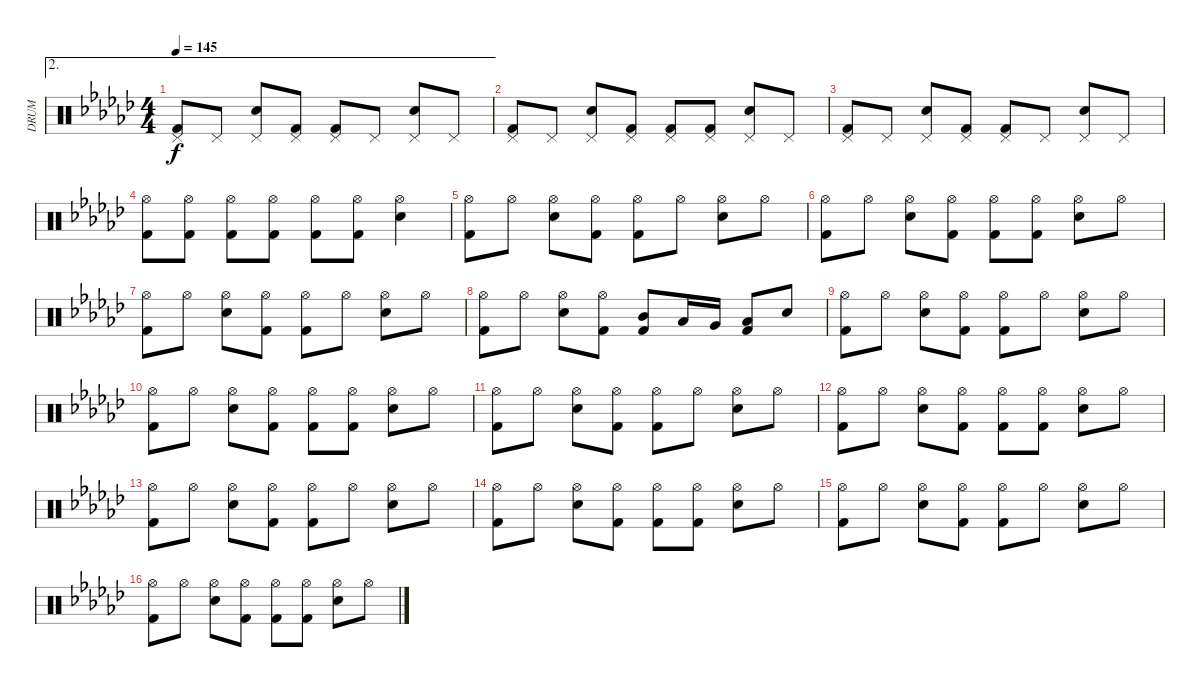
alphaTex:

\track ("DRUM" "DRUM") {instrument percussion}
\staff {score}
\articulation defaults
\ae 2
\ts (4 4)
\tempo 145
\clef neutral
\ks ebminor
("Pedal Hi-Hat (hit)" "Kick (hit) 2").8{dy f} "Pedal Hi-Hat (hit)".8 ("Pedal Hi-Hat (hit)" "Electric Snare (hit)").8 ("Pedal Hi-Hat (hit)" "Kick (hit) 2").8 ("Pedal Hi-Hat (hit)" "Kick (hit) 2").8 "Pedal Hi-Hat (hit)".8 ("Pedal Hi-Hat (hit)" "Electric Snare (hit)").8 "Pedal Hi-Hat (hit)".8 |
("Pedal Hi-Hat (hit)" "Kick (hit) 2").8 "Pedal Hi-Hat (hit)".8 ("Pedal Hi-Hat (hit)" "Electric Snare (hit)").8 ("Pedal Hi-Hat (hit)" "Kick (hit) 2").8 ("Pedal Hi-Hat (hit)" "Kick (hit) 2").8 ("Pedal Hi-Hat (hit)" "Kick (hit) 2").8 ("Pedal Hi-Hat (hit)" "Electric Snare (hit)").8 "Pedal Hi-Hat (hit)".8 |
("Pedal Hi-Hat (hit)" "Kick (hit) 2").8 "Pedal Hi-Hat (hit)".8 ("Pedal Hi-Hat (hit)" "Electric Snare (hit)").8 ("Pedal Hi-Hat (hit)" "Kick (hit) 2").8 ("Pedal Hi-Hat (hit)" "Kick (hit) 2").8 "Pedal Hi-Hat (hit)".8 ("Pedal Hi-Hat (hit)" "Electric Snare (hit)").8 "Pedal Hi-Hat (hit)".8 |
("Hi-Hat (open)" "Kick (hit) 2").8 ("Hi-Hat (open)" "Kick (hit) 2").8 ("Hi-Hat (open)" "Kick (hit) 2").8 ("Hi-Hat (open)" "Kick (hit) 2").8 ("Hi-Hat (open)" "Kick (hit) 2").8 ("Hi-Hat (open)" "Kick (hit) 2").8 ("Hi-Hat (open)" "Electric Snare (hit)").4 |
("Hi-Hat (open)" "Kick (hit) 2").8 "Hi-Hat (open)".8 ("Hi-Hat (open)" "Electric Snare (hit)").8 ("Hi-Hat (open)" "Kick (hit) 2").8 ("Hi-Hat (open)" "Kick (hit) 2").8 "Hi-Hat (open)".8 ("Hi-Hat (open)" "Electric Snare (hit)").8 "Hi-Hat (open)".8 |
("Hi-Hat (open)" "Kick (hit) 2").8 "Hi-Hat (open)".8 ("Hi-Hat (open)" "Electric Snare (hit)").8 ("Hi-Hat (open)" "Kick (hit) 2").8 ("Hi-Hat (open)" "Kick (hit) 2").8 ("Hi-Hat (open)" "Kick (hit) 2").8 ("Hi-Hat (open)" "Electric Snare (hit)").8 "Hi-Hat (open)".8 |
("Hi-Hat (open)" "Kick (hit) 2").8 "Hi-Hat (open)".8 ("Hi-Hat (open)" "Electric Snare (hit)").8 ("Hi-Hat (open)" "Kick (hit) 2").8 ("Hi-Hat (open)" "Kick (hit) 2").8 "Hi-Hat (open)".8 ("Hi-Hat (open)" "Electric Snare (hit)").8 "Hi-Hat (open)".8 |
("Hi-Hat (open)" "Kick (hit) 2").8 "Hi-Hat (open)".8 ("Hi-Hat (open)" "Electric Snare (hit)").8 ("Hi-Hat (open)" "Kick (hit) 2").8 ("Mid Tom (hit)" "Kick (hit) 2").8 "Low Tom (hit)".16 "Very Low Tom (hit)".16 ("Low Floor Tom (hit)" "Kick (hit) 2").8 "Electric Snare (hit)".8 |
("Hi-Hat (open)" "Kick (hit) 2").8 "Hi-Hat (open)".8 ("Hi-Hat (open)" "Electric Snare (hit)").8 ("Hi-Hat (open)" "Kick (hit) 2").8 ("Hi-Hat (open)" "Kick (hit) 2").8 "Hi-Hat (open)".8 ("Hi-Hat (open)" "Electric Snare (hit)").8 "Hi-Hat (open)".8 |
("Hi-Hat (open)" "Kick (hit) 2").8 "Hi-Hat (open)".8 ("Hi-Hat (open)" "Electric Snare (hit)").8 ("Hi-Hat (open)" "Kick (hit) 2").8 ("Hi-Hat (open)" "Kick (hit) 2").8 ("Hi-Hat (open)" "Kick (hit) 2").8 ("Hi-Hat (open)" "Electric Snare (hit)").8 "Hi-Hat (open)".8 |
("Hi-Hat (open)" "Kick (hit) 2").8 "Hi-Hat (open)".8 ("Hi-Hat (open)" "Electric Snare (hit)").8 ("Hi-Hat (open)" "Kick (hit) 2").8 ("Hi-Hat (open)" "Kick (hit) 2").8 "Hi-Hat (open)".8 ("Hi-Hat (open)" "Electric Snare (hit)").8 "Hi-Hat (open)".8 |
("Hi-Hat (open)" "Kick (hit) 2").8 "Hi-Hat (open)".8 ("Hi-Hat (open)" "Electric Snare (hit)").8 ("Hi-Hat (open)" "Kick (hit) 2").8 ("Hi-Hat (open)" "Kick (hit) 2").8 ("Hi-Hat (open)" "Kick (hit) 2").8 ("Hi-Hat (open)" "Electric Snare (hit)").8 "Hi-Hat (open)".8 |
("Hi-Hat (open)" "Kick (hit) 2").8 "Hi-Hat (open)".8 ("Hi-Hat (open)" "Electric Snare (hit)").8 ("Hi-Hat (open)" "Kick (hit) 2").8 ("Hi-Hat (open)" "Kick (hit) 2").8 "Hi-Hat (open)".8 ("Hi-Hat (open)" "Electric Snare (hit)").8 "Hi-Hat (open)".8 |
("Hi-Hat (open)" "Kick (hit) 2").8 "Hi-Hat (open)".8 ("Hi-Hat (open)" "Electric Snare (hit)").8 ("Hi-Hat (open)" "Kick (hit) 2").8 ("Hi-Hat (open)" "Kick (hit) 2").8 ("Hi-Hat (open)" "Kick (hit) 2").8 ("Hi-Hat (open)" "Electric Snare (hit)").8 "Hi-Hat (open)".8 |
("Hi-Hat (open)" "Kick (hit) 2").8 "Hi-Hat (open)".8 ("Hi-Hat (open)" "Electric Snare (hit)").8 ("Hi-Hat (open)" "Kick (hit) 2").8 ("Hi-Hat (open)" "Kick (hit) 2").8 "Hi-Hat (open)".8 ("Hi-Hat (open)" "Electric Snare (hit)").8 "Hi-Hat (open)".8 |
("Hi-Hat (open)" "Kick (hit) 2").8 "Hi-Hat (open)".8 ("Hi-Hat (open)" "Electric Snare (hit)").8 ("Hi-Hat (open)" "Kick (hit) 2").8 ("Hi-Hat (open)" "Kick (hit) 2").8 ("Hi-Hat (open)" "Kick (hit) 2").8 ("Hi-Hat (open)" "Electric Snare (hit)").8 "Hi-Hat (open)".8
